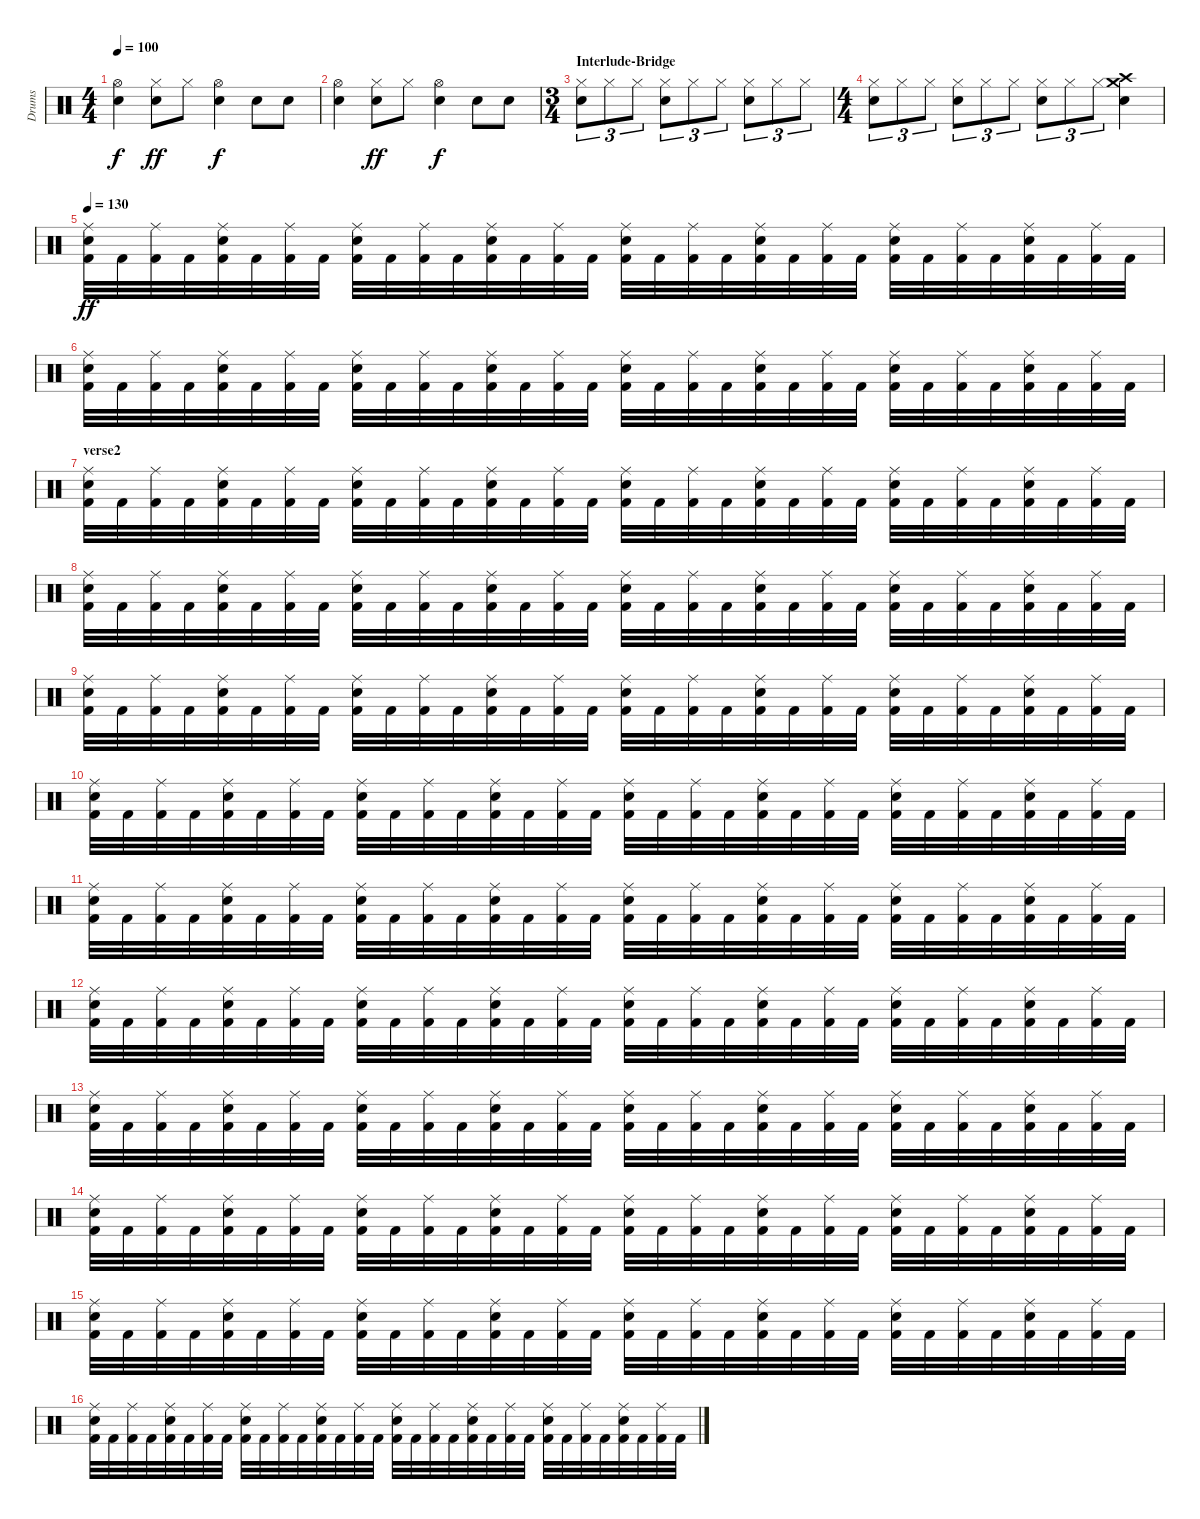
\track ("Drums" "Drums") {instrument percussion}
\staff {score}
\articulation defaults
\ts (4 4)
\tempo 100
\clef neutral
\ks c
("Hi-Hat (open)" "Electric Snare (hit)").4{dy f} ("Hi-Hat (closed)" "Electric Snare (hit)").8{dy ff} "Hi-Hat (closed)".8 ("Hi-Hat (open)" "Electric Snare (hit)").4{dy f} "Electric Snare (hit)".8 "Electric Snare (hit)".8 |
("Hi-Hat (open)" "Electric Snare (hit)").4 ("Hi-Hat (closed)" "Electric Snare (hit)").8{dy ff} "Hi-Hat (closed)".8 ("Hi-Hat (open)" "Electric Snare (hit)").4{dy f} "Electric Snare (hit)".8 "Electric Snare (hit)".8 |
\ts (3 4)
\section ("" "Interlude-Bridge")
("Hi-Hat (closed)" "Electric Snare (hit)").8{tu (3 2)} "Hi-Hat (closed)".8{tu (3 2)} "Hi-Hat (closed)".8{tu (3 2)} ("Electric Snare (hit)" "Hi-Hat (closed)").8{tu (3 2)} "Hi-Hat (closed)".8{tu (3 2)} "Hi-Hat (closed)".8{tu (3 2)} ("Electric Snare (hit)" "Hi-Hat (closed)").8{tu (3 2)} "Hi-Hat (closed)".8{tu (3 2)} "Hi-Hat (closed)".8{tu (3 2)} |
\ts (4 4)
("Hi-Hat (closed)" "Electric Snare (hit)").8{tu (3 2)} "Hi-Hat (closed)".8{tu (3 2)} "Hi-Hat (closed)".8{tu (3 2)} ("Electric Snare (hit)" "Hi-Hat (closed)").8{tu (3 2)} "Hi-Hat (closed)".8{tu (3 2)} "Hi-Hat (closed)".8{tu (3 2)} ("Electric Snare (hit)" "Hi-Hat (closed)").8{tu (3 2)} "Hi-Hat (closed)".8{tu (3 2)} "Hi-Hat (closed)".8{tu (3 2)} ("Crash high (hit)" "Crash medium (hit)" "Electric Snare (hit)").4 |
\tempo 130
("Electric Snare (hit)" "Ride (middle)" "Kick (hit) 2").32{dy ff} "Kick (hit) 2".32 ("Ride (middle)" "Kick (hit) 2").32 "Kick (hit) 2".32 ("Electric Snare (hit)" "Ride (middle)" "Kick (hit) 2").32 "Kick (hit) 2".32 ("Ride (middle)" "Kick (hit) 2").32 "Kick (hit) 2".32 ("Electric Snare (hit)" "Ride (middle)" "Kick (hit) 2").32 "Kick (hit) 2".32 ("Ride (middle)" "Kick (hit) 2").32 "Kick (hit) 2".32 ("Electric Snare (hit)" "Ride (middle)" "Kick (hit) 2").32 "Kick (hit) 2".32 ("Ride (middle)" "Kick (hit) 2").32 "Kick (hit) 2".32 ("Electric Snare (hit)" "Ride (middle)" "Kick (hit) 2").32 "Kick (hit) 2".32 ("Ride (middle)" "Kick (hit) 2").32 "Kick (hit) 2".32 ("Electric Snare (hit)" "Ride (middle)" "Kick (hit) 2").32 "Kick (hit) 2".32 ("Ride (middle)" "Kick (hit) 2").32 "Kick (hit) 2".32 ("Electric Snare (hit)" "Ride (middle)" "Kick (hit) 2").32 "Kick (hit) 2".32 ("Ride (middle)" "Kick (hit) 2").32 "Kick (hit) 2".32 ("Electric Snare (hit)" "Ride (middle)" "Kick (hit) 2").32 "Kick (hit) 2".32 ("Ride (middle)" "Kick (hit) 2").32 "Kick (hit) 2".32 |
("Electric Snare (hit)" "Ride (middle)" "Kick (hit) 2").32 "Kick (hit) 2".32 ("Ride (middle)" "Kick (hit) 2").32 "Kick (hit) 2".32 ("Electric Snare (hit)" "Ride (middle)" "Kick (hit) 2").32 "Kick (hit) 2".32 ("Ride (middle)" "Kick (hit) 2").32 "Kick (hit) 2".32 ("Electric Snare (hit)" "Ride (middle)" "Kick (hit) 2").32 "Kick (hit) 2".32 ("Ride (middle)" "Kick (hit) 2").32 "Kick (hit) 2".32 ("Electric Snare (hit)" "Ride (middle)" "Kick (hit) 2").32 "Kick (hit) 2".32 ("Ride (middle)" "Kick (hit) 2").32 "Kick (hit) 2".32 ("Electric Snare (hit)" "Ride (middle)" "Kick (hit) 2").32 "Kick (hit) 2".32 ("Ride (middle)" "Kick (hit) 2").32 "Kick (hit) 2".32 ("Electric Snare (hit)" "Ride (middle)" "Kick (hit) 2").32 "Kick (hit) 2".32 ("Ride (middle)" "Kick (hit) 2").32 "Kick (hit) 2".32 ("Electric Snare (hit)" "Ride (middle)" "Kick (hit) 2").32 "Kick (hit) 2".32 ("Ride (middle)" "Kick (hit) 2").32 "Kick (hit) 2".32 ("Electric Snare (hit)" "Ride (middle)" "Kick (hit) 2").32 "Kick (hit) 2".32 ("Ride (middle)" "Kick (hit) 2").32 "Kick (hit) 2".32 |
\section ("" "verse2")
("Electric Snare (hit)" "Ride (middle)" "Kick (hit) 2").32 "Kick (hit) 2".32 ("Ride (middle)" "Kick (hit) 2").32 "Kick (hit) 2".32 ("Electric Snare (hit)" "Ride (middle)" "Kick (hit) 2").32 "Kick (hit) 2".32 ("Ride (middle)" "Kick (hit) 2").32 "Kick (hit) 2".32 ("Electric Snare (hit)" "Ride (middle)" "Kick (hit) 2").32 "Kick (hit) 2".32 ("Ride (middle)" "Kick (hit) 2").32 "Kick (hit) 2".32 ("Electric Snare (hit)" "Ride (middle)" "Kick (hit) 2").32 "Kick (hit) 2".32 ("Ride (middle)" "Kick (hit) 2").32 "Kick (hit) 2".32 ("Electric Snare (hit)" "Ride (middle)" "Kick (hit) 2").32 "Kick (hit) 2".32 ("Ride (middle)" "Kick (hit) 2").32 "Kick (hit) 2".32 ("Electric Snare (hit)" "Ride (middle)" "Kick (hit) 2").32 "Kick (hit) 2".32 ("Ride (middle)" "Kick (hit) 2").32 "Kick (hit) 2".32 ("Electric Snare (hit)" "Ride (middle)" "Kick (hit) 2").32 "Kick (hit) 2".32 ("Ride (middle)" "Kick (hit) 2").32 "Kick (hit) 2".32 ("Electric Snare (hit)" "Ride (middle)" "Kick (hit) 2").32 "Kick (hit) 2".32 ("Ride (middle)" "Kick (hit) 2").32 "Kick (hit) 2".32 |
("Electric Snare (hit)" "Ride (middle)" "Kick (hit) 2").32 "Kick (hit) 2".32 ("Ride (middle)" "Kick (hit) 2").32 "Kick (hit) 2".32 ("Electric Snare (hit)" "Ride (middle)" "Kick (hit) 2").32 "Kick (hit) 2".32 ("Ride (middle)" "Kick (hit) 2").32 "Kick (hit) 2".32 ("Electric Snare (hit)" "Ride (middle)" "Kick (hit) 2").32 "Kick (hit) 2".32 ("Ride (middle)" "Kick (hit) 2").32 "Kick (hit) 2".32 ("Electric Snare (hit)" "Ride (middle)" "Kick (hit) 2").32 "Kick (hit) 2".32 ("Ride (middle)" "Kick (hit) 2").32 "Kick (hit) 2".32 ("Electric Snare (hit)" "Ride (middle)" "Kick (hit) 2").32 "Kick (hit) 2".32 ("Ride (middle)" "Kick (hit) 2").32 "Kick (hit) 2".32 ("Electric Snare (hit)" "Ride (middle)" "Kick (hit) 2").32 "Kick (hit) 2".32 ("Ride (middle)" "Kick (hit) 2").32 "Kick (hit) 2".32 ("Electric Snare (hit)" "Ride (middle)" "Kick (hit) 2").32 "Kick (hit) 2".32 ("Ride (middle)" "Kick (hit) 2").32 "Kick (hit) 2".32 ("Electric Snare (hit)" "Ride (middle)" "Kick (hit) 2").32 "Kick (hit) 2".32 ("Ride (middle)" "Kick (hit) 2").32 "Kick (hit) 2".32 |
("Electric Snare (hit)" "Ride (middle)" "Kick (hit) 2").32 "Kick (hit) 2".32 ("Ride (middle)" "Kick (hit) 2").32 "Kick (hit) 2".32 ("Electric Snare (hit)" "Ride (middle)" "Kick (hit) 2").32 "Kick (hit) 2".32 ("Ride (middle)" "Kick (hit) 2").32 "Kick (hit) 2".32 ("Electric Snare (hit)" "Ride (middle)" "Kick (hit) 2").32 "Kick (hit) 2".32 ("Ride (middle)" "Kick (hit) 2").32 "Kick (hit) 2".32 ("Electric Snare (hit)" "Ride (middle)" "Kick (hit) 2").32 "Kick (hit) 2".32 ("Ride (middle)" "Kick (hit) 2").32 "Kick (hit) 2".32 ("Electric Snare (hit)" "Ride (middle)" "Kick (hit) 2").32 "Kick (hit) 2".32 ("Ride (middle)" "Kick (hit) 2").32 "Kick (hit) 2".32 ("Electric Snare (hit)" "Ride (middle)" "Kick (hit) 2").32 "Kick (hit) 2".32 ("Ride (middle)" "Kick (hit) 2").32 "Kick (hit) 2".32 ("Electric Snare (hit)" "Ride (middle)" "Kick (hit) 2").32 "Kick (hit) 2".32 ("Ride (middle)" "Kick (hit) 2").32 "Kick (hit) 2".32 ("Electric Snare (hit)" "Ride (middle)" "Kick (hit) 2").32 "Kick (hit) 2".32 ("Ride (middle)" "Kick (hit) 2").32 "Kick (hit) 2".32 |
("Electric Snare (hit)" "Ride (middle)" "Kick (hit) 2").32 "Kick (hit) 2".32 ("Ride (middle)" "Kick (hit) 2").32 "Kick (hit) 2".32 ("Electric Snare (hit)" "Ride (middle)" "Kick (hit) 2").32 "Kick (hit) 2".32 ("Ride (middle)" "Kick (hit) 2").32 "Kick (hit) 2".32 ("Electric Snare (hit)" "Ride (middle)" "Kick (hit) 2").32 "Kick (hit) 2".32 ("Ride (middle)" "Kick (hit) 2").32 "Kick (hit) 2".32 ("Electric Snare (hit)" "Ride (middle)" "Kick (hit) 2").32 "Kick (hit) 2".32 ("Ride (middle)" "Kick (hit) 2").32 "Kick (hit) 2".32 ("Electric Snare (hit)" "Ride (middle)" "Kick (hit) 2").32 "Kick (hit) 2".32 ("Ride (middle)" "Kick (hit) 2").32 "Kick (hit) 2".32 ("Electric Snare (hit)" "Ride (middle)" "Kick (hit) 2").32 "Kick (hit) 2".32 ("Ride (middle)" "Kick (hit) 2").32 "Kick (hit) 2".32 ("Electric Snare (hit)" "Ride (middle)" "Kick (hit) 2").32 "Kick (hit) 2".32 ("Ride (middle)" "Kick (hit) 2").32 "Kick (hit) 2".32 ("Electric Snare (hit)" "Ride (middle)" "Kick (hit) 2").32 "Kick (hit) 2".32 ("Ride (middle)" "Kick (hit) 2").32 "Kick (hit) 2".32 |
("Electric Snare (hit)" "Ride (middle)" "Kick (hit) 2").32 "Kick (hit) 2".32 ("Ride (middle)" "Kick (hit) 2").32 "Kick (hit) 2".32 ("Electric Snare (hit)" "Ride (middle)" "Kick (hit) 2").32 "Kick (hit) 2".32 ("Ride (middle)" "Kick (hit) 2").32 "Kick (hit) 2".32 ("Electric Snare (hit)" "Ride (middle)" "Kick (hit) 2").32 "Kick (hit) 2".32 ("Ride (middle)" "Kick (hit) 2").32 "Kick (hit) 2".32 ("Electric Snare (hit)" "Ride (middle)" "Kick (hit) 2").32 "Kick (hit) 2".32 ("Ride (middle)" "Kick (hit) 2").32 "Kick (hit) 2".32 ("Electric Snare (hit)" "Ride (middle)" "Kick (hit) 2").32 "Kick (hit) 2".32 ("Ride (middle)" "Kick (hit) 2").32 "Kick (hit) 2".32 ("Electric Snare (hit)" "Ride (middle)" "Kick (hit) 2").32 "Kick (hit) 2".32 ("Ride (middle)" "Kick (hit) 2").32 "Kick (hit) 2".32 ("Electric Snare (hit)" "Ride (middle)" "Kick (hit) 2").32 "Kick (hit) 2".32 ("Ride (middle)" "Kick (hit) 2").32 "Kick (hit) 2".32 ("Electric Snare (hit)" "Ride (middle)" "Kick (hit) 2").32 "Kick (hit) 2".32 ("Ride (middle)" "Kick (hit) 2").32 "Kick (hit) 2".32 |
("Electric Snare (hit)" "Ride (middle)" "Kick (hit) 2").32 "Kick (hit) 2".32 ("Ride (middle)" "Kick (hit) 2").32 "Kick (hit) 2".32 ("Electric Snare (hit)" "Ride (middle)" "Kick (hit) 2").32 "Kick (hit) 2".32 ("Ride (middle)" "Kick (hit) 2").32 "Kick (hit) 2".32 ("Electric Snare (hit)" "Ride (middle)" "Kick (hit) 2").32 "Kick (hit) 2".32 ("Ride (middle)" "Kick (hit) 2").32 "Kick (hit) 2".32 ("Electric Snare (hit)" "Ride (middle)" "Kick (hit) 2").32 "Kick (hit) 2".32 ("Ride (middle)" "Kick (hit) 2").32 "Kick (hit) 2".32 ("Electric Snare (hit)" "Ride (middle)" "Kick (hit) 2").32 "Kick (hit) 2".32 ("Ride (middle)" "Kick (hit) 2").32 "Kick (hit) 2".32 ("Electric Snare (hit)" "Ride (middle)" "Kick (hit) 2").32 "Kick (hit) 2".32 ("Ride (middle)" "Kick (hit) 2").32 "Kick (hit) 2".32 ("Electric Snare (hit)" "Ride (middle)" "Kick (hit) 2").32 "Kick (hit) 2".32 ("Ride (middle)" "Kick (hit) 2").32 "Kick (hit) 2".32 ("Electric Snare (hit)" "Ride (middle)" "Kick (hit) 2").32 "Kick (hit) 2".32 ("Ride (middle)" "Kick (hit) 2").32 "Kick (hit) 2".32 |
("Electric Snare (hit)" "Ride (middle)" "Kick (hit) 2").32 "Kick (hit) 2".32 ("Ride (middle)" "Kick (hit) 2").32 "Kick (hit) 2".32 ("Electric Snare (hit)" "Ride (middle)" "Kick (hit) 2").32 "Kick (hit) 2".32 ("Ride (middle)" "Kick (hit) 2").32 "Kick (hit) 2".32 ("Electric Snare (hit)" "Ride (middle)" "Kick (hit) 2").32 "Kick (hit) 2".32 ("Ride (middle)" "Kick (hit) 2").32 "Kick (hit) 2".32 ("Electric Snare (hit)" "Ride (middle)" "Kick (hit) 2").32 "Kick (hit) 2".32 ("Ride (middle)" "Kick (hit) 2").32 "Kick (hit) 2".32 ("Electric Snare (hit)" "Ride (middle)" "Kick (hit) 2").32 "Kick (hit) 2".32 ("Ride (middle)" "Kick (hit) 2").32 "Kick (hit) 2".32 ("Electric Snare (hit)" "Ride (middle)" "Kick (hit) 2").32 "Kick (hit) 2".32 ("Ride (middle)" "Kick (hit) 2").32 "Kick (hit) 2".32 ("Electric Snare (hit)" "Ride (middle)" "Kick (hit) 2").32 "Kick (hit) 2".32 ("Ride (middle)" "Kick (hit) 2").32 "Kick (hit) 2".32 ("Electric Snare (hit)" "Ride (middle)" "Kick (hit) 2").32 "Kick (hit) 2".32 ("Ride (middle)" "Kick (hit) 2").32 "Kick (hit) 2".32 |
("Electric Snare (hit)" "Ride (middle)" "Kick (hit) 2").32 "Kick (hit) 2".32 ("Ride (middle)" "Kick (hit) 2").32 "Kick (hit) 2".32 ("Electric Snare (hit)" "Ride (middle)" "Kick (hit) 2").32 "Kick (hit) 2".32 ("Ride (middle)" "Kick (hit) 2").32 "Kick (hit) 2".32 ("Electric Snare (hit)" "Ride (middle)" "Kick (hit) 2").32 "Kick (hit) 2".32 ("Ride (middle)" "Kick (hit) 2").32 "Kick (hit) 2".32 ("Electric Snare (hit)" "Ride (middle)" "Kick (hit) 2").32 "Kick (hit) 2".32 ("Ride (middle)" "Kick (hit) 2").32 "Kick (hit) 2".32 ("Electric Snare (hit)" "Ride (middle)" "Kick (hit) 2").32 "Kick (hit) 2".32 ("Ride (middle)" "Kick (hit) 2").32 "Kick (hit) 2".32 ("Electric Snare (hit)" "Ride (middle)" "Kick (hit) 2").32 "Kick (hit) 2".32 ("Ride (middle)" "Kick (hit) 2").32 "Kick (hit) 2".32 ("Electric Snare (hit)" "Ride (middle)" "Kick (hit) 2").32 "Kick (hit) 2".32 ("Ride (middle)" "Kick (hit) 2").32 "Kick (hit) 2".32 ("Electric Snare (hit)" "Ride (middle)" "Kick (hit) 2").32 "Kick (hit) 2".32 ("Ride (middle)" "Kick (hit) 2").32 "Kick (hit) 2".32 |
("Electric Snare (hit)" "Ride (middle)" "Kick (hit) 2").32 "Kick (hit) 2".32 ("Ride (middle)" "Kick (hit) 2").32 "Kick (hit) 2".32 ("Electric Snare (hit)" "Ride (middle)" "Kick (hit) 2").32 "Kick (hit) 2".32 ("Ride (middle)" "Kick (hit) 2").32 "Kick (hit) 2".32 ("Electric Snare (hit)" "Ride (middle)" "Kick (hit) 2").32 "Kick (hit) 2".32 ("Ride (middle)" "Kick (hit) 2").32 "Kick (hit) 2".32 ("Electric Snare (hit)" "Ride (middle)" "Kick (hit) 2").32 "Kick (hit) 2".32 ("Ride (middle)" "Kick (hit) 2").32 "Kick (hit) 2".32 ("Electric Snare (hit)" "Ride (middle)" "Kick (hit) 2").32 "Kick (hit) 2".32 ("Ride (middle)" "Kick (hit) 2").32 "Kick (hit) 2".32 ("Electric Snare (hit)" "Ride (middle)" "Kick (hit) 2").32 "Kick (hit) 2".32 ("Ride (middle)" "Kick (hit) 2").32 "Kick (hit) 2".32 ("Electric Snare (hit)" "Ride (middle)" "Kick (hit) 2").32 "Kick (hit) 2".32 ("Ride (middle)" "Kick (hit) 2").32 "Kick (hit) 2".32 ("Electric Snare (hit)" "Ride (middle)" "Kick (hit) 2").32 "Kick (hit) 2".32 ("Ride (middle)" "Kick (hit) 2").32 "Kick (hit) 2".32 |
("Electric Snare (hit)" "Ride (middle)" "Kick (hit) 2").32 "Kick (hit) 2".32 ("Ride (middle)" "Kick (hit) 2").32 "Kick (hit) 2".32 ("Electric Snare (hit)" "Ride (middle)" "Kick (hit) 2").32 "Kick (hit) 2".32 ("Ride (middle)" "Kick (hit) 2").32 "Kick (hit) 2".32 ("Electric Snare (hit)" "Ride (middle)" "Kick (hit) 2").32 "Kick (hit) 2".32 ("Ride (middle)" "Kick (hit) 2").32 "Kick (hit) 2".32 ("Electric Snare (hit)" "Ride (middle)" "Kick (hit) 2").32 "Kick (hit) 2".32 ("Ride (middle)" "Kick (hit) 2").32 "Kick (hit) 2".32 ("Electric Snare (hit)" "Ride (middle)" "Kick (hit) 2").32 "Kick (hit) 2".32 ("Ride (middle)" "Kick (hit) 2").32 "Kick (hit) 2".32 ("Electric Snare (hit)" "Ride (middle)" "Kick (hit) 2").32 "Kick (hit) 2".32 ("Ride (middle)" "Kick (hit) 2").32 "Kick (hit) 2".32 ("Electric Snare (hit)" "Ride (middle)" "Kick (hit) 2").32 "Kick (hit) 2".32 ("Ride (middle)" "Kick (hit) 2").32 "Kick (hit) 2".32 ("Electric Snare (hit)" "Ride (middle)" "Kick (hit) 2").32 "Kick (hit) 2".32 ("Ride (middle)" "Kick (hit) 2").32 "Kick (hit) 2".32
